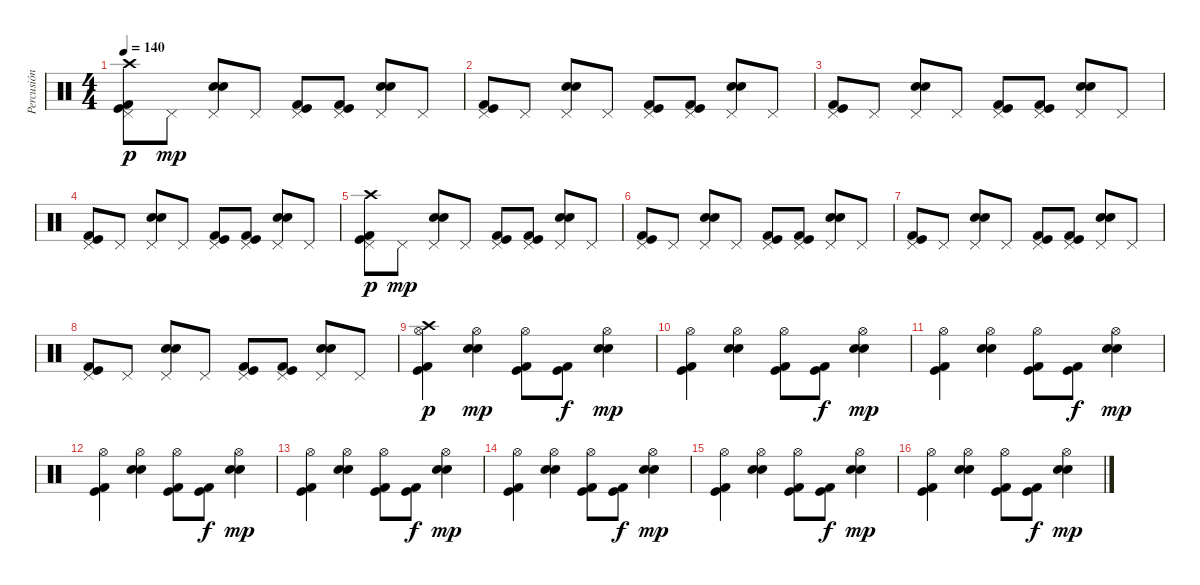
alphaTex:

\track ("Percusión" "Percusión") {instrument percussion}
\staff {score}
\articulation defaults
\ts (4 4)
\tempo 140
\clef neutral
\ks c
("Kick (hit)" "Kick (hit) 2" "Pedal Hi-Hat (hit)" "Crash high (hit)").8{dy p} "Pedal Hi-Hat (hit)".8{dy mp} ("Electric Snare (hit)" "Snare (hit) 2" "Pedal Hi-Hat (hit)").8 "Pedal Hi-Hat (hit)".8 ("Kick (hit)" "Kick (hit) 2" "Pedal Hi-Hat (hit)").8 ("Kick (hit)" "Kick (hit) 2" "Pedal Hi-Hat (hit)").8 ("Snare (hit) 2" "Electric Snare (hit)" "Pedal Hi-Hat (hit)").8 "Pedal Hi-Hat (hit)".8 |
("Kick (hit)" "Kick (hit) 2" "Pedal Hi-Hat (hit)").8 "Pedal Hi-Hat (hit)".8 ("Electric Snare (hit)" "Snare (hit) 2" "Pedal Hi-Hat (hit)").8 "Pedal Hi-Hat (hit)".8 ("Kick (hit)" "Kick (hit) 2" "Pedal Hi-Hat (hit)").8 ("Kick (hit)" "Kick (hit) 2" "Pedal Hi-Hat (hit)").8 ("Snare (hit) 2" "Electric Snare (hit)" "Pedal Hi-Hat (hit)").8 "Pedal Hi-Hat (hit)".8 |
("Kick (hit)" "Kick (hit) 2" "Pedal Hi-Hat (hit)").8 "Pedal Hi-Hat (hit)".8 ("Electric Snare (hit)" "Snare (hit) 2" "Pedal Hi-Hat (hit)").8 "Pedal Hi-Hat (hit)".8 ("Kick (hit)" "Kick (hit) 2" "Pedal Hi-Hat (hit)").8 ("Kick (hit)" "Kick (hit) 2" "Pedal Hi-Hat (hit)").8 ("Snare (hit) 2" "Electric Snare (hit)" "Pedal Hi-Hat (hit)").8 "Pedal Hi-Hat (hit)".8 |
("Kick (hit)" "Kick (hit) 2" "Pedal Hi-Hat (hit)").8 "Pedal Hi-Hat (hit)".8 ("Electric Snare (hit)" "Snare (hit) 2" "Pedal Hi-Hat (hit)").8 "Pedal Hi-Hat (hit)".8 ("Kick (hit)" "Kick (hit) 2" "Pedal Hi-Hat (hit)").8 ("Kick (hit)" "Kick (hit) 2" "Pedal Hi-Hat (hit)").8 ("Snare (hit) 2" "Electric Snare (hit)" "Pedal Hi-Hat (hit)").8 "Pedal Hi-Hat (hit)".8 |
("Kick (hit)" "Kick (hit) 2" "Pedal Hi-Hat (hit)" "Crash high (hit)").8{dy p} "Pedal Hi-Hat (hit)".8{dy mp} ("Electric Snare (hit)" "Snare (hit) 2" "Pedal Hi-Hat (hit)").8 "Pedal Hi-Hat (hit)".8 ("Kick (hit)" "Kick (hit) 2" "Pedal Hi-Hat (hit)").8 ("Kick (hit)" "Kick (hit) 2" "Pedal Hi-Hat (hit)").8 ("Snare (hit) 2" "Electric Snare (hit)" "Pedal Hi-Hat (hit)").8 "Pedal Hi-Hat (hit)".8 |
("Kick (hit)" "Kick (hit) 2" "Pedal Hi-Hat (hit)").8 "Pedal Hi-Hat (hit)".8 ("Electric Snare (hit)" "Snare (hit) 2" "Pedal Hi-Hat (hit)").8 "Pedal Hi-Hat (hit)".8 ("Kick (hit)" "Kick (hit) 2" "Pedal Hi-Hat (hit)").8 ("Kick (hit)" "Kick (hit) 2" "Pedal Hi-Hat (hit)").8 ("Snare (hit) 2" "Electric Snare (hit)" "Pedal Hi-Hat (hit)").8 "Pedal Hi-Hat (hit)".8 |
("Kick (hit)" "Kick (hit) 2" "Pedal Hi-Hat (hit)").8 "Pedal Hi-Hat (hit)".8 ("Electric Snare (hit)" "Snare (hit) 2" "Pedal Hi-Hat (hit)").8 "Pedal Hi-Hat (hit)".8 ("Kick (hit)" "Kick (hit) 2" "Pedal Hi-Hat (hit)").8 ("Kick (hit)" "Kick (hit) 2" "Pedal Hi-Hat (hit)").8 ("Snare (hit) 2" "Electric Snare (hit)" "Pedal Hi-Hat (hit)").8 "Pedal Hi-Hat (hit)".8 |
("Kick (hit)" "Kick (hit) 2" "Pedal Hi-Hat (hit)").8 "Pedal Hi-Hat (hit)".8 ("Electric Snare (hit)" "Snare (hit) 2" "Pedal Hi-Hat (hit)").8 "Pedal Hi-Hat (hit)".8 ("Kick (hit)" "Kick (hit) 2" "Pedal Hi-Hat (hit)").8 ("Kick (hit)" "Kick (hit) 2" "Pedal Hi-Hat (hit)").8 ("Snare (hit) 2" "Electric Snare (hit)" "Pedal Hi-Hat (hit)").8 "Pedal Hi-Hat (hit)".8 |
("Kick (hit)" "Kick (hit) 2" "Hi-Hat (open)" "Crash high (hit)").4{dy p} ("Electric Snare (hit)" "Snare (hit) 2" "Hi-Hat (open)").4{dy mp} ("Kick (hit)" "Kick (hit) 2" "Hi-Hat (open)").8 ("Kick (hit)" "Kick (hit) 2").8{dy f} ("Snare (hit) 2" "Electric Snare (hit)" "Hi-Hat (open)").4{dy mp} |
("Kick (hit)" "Kick (hit) 2" "Hi-Hat (open)").4 ("Electric Snare (hit)" "Snare (hit) 2" "Hi-Hat (open)").4 ("Kick (hit)" "Kick (hit) 2" "Hi-Hat (open)").8 ("Kick (hit)" "Kick (hit) 2").8{dy f} ("Snare (hit) 2" "Electric Snare (hit)" "Hi-Hat (open)").4{dy mp} |
("Kick (hit)" "Kick (hit) 2" "Hi-Hat (open)").4 ("Electric Snare (hit)" "Snare (hit) 2" "Hi-Hat (open)").4 ("Kick (hit)" "Kick (hit) 2" "Hi-Hat (open)").8 ("Kick (hit)" "Kick (hit) 2").8{dy f} ("Snare (hit) 2" "Electric Snare (hit)" "Hi-Hat (open)").4{dy mp} |
("Kick (hit)" "Kick (hit) 2" "Hi-Hat (open)").4 ("Electric Snare (hit)" "Snare (hit) 2" "Hi-Hat (open)").4 ("Kick (hit)" "Kick (hit) 2" "Hi-Hat (open)").8 ("Kick (hit)" "Kick (hit) 2").8{dy f} ("Snare (hit) 2" "Electric Snare (hit)" "Hi-Hat (open)").4{dy mp} |
("Kick (hit)" "Kick (hit) 2" "Hi-Hat (open)").4 ("Electric Snare (hit)" "Snare (hit) 2" "Hi-Hat (open)").4 ("Kick (hit)" "Kick (hit) 2" "Hi-Hat (open)").8 ("Kick (hit)" "Kick (hit) 2").8{dy f} ("Snare (hit) 2" "Electric Snare (hit)" "Hi-Hat (open)").4{dy mp} |
("Kick (hit)" "Kick (hit) 2" "Hi-Hat (open)").4 ("Electric Snare (hit)" "Snare (hit) 2" "Hi-Hat (open)").4 ("Kick (hit)" "Kick (hit) 2" "Hi-Hat (open)").8 ("Kick (hit)" "Kick (hit) 2").8{dy f} ("Snare (hit) 2" "Electric Snare (hit)" "Hi-Hat (open)").4{dy mp} |
("Kick (hit)" "Kick (hit) 2" "Hi-Hat (open)").4 ("Electric Snare (hit)" "Snare (hit) 2" "Hi-Hat (open)").4 ("Kick (hit)" "Kick (hit) 2" "Hi-Hat (open)").8 ("Kick (hit)" "Kick (hit) 2").8{dy f} ("Snare (hit) 2" "Electric Snare (hit)" "Hi-Hat (open)").4{dy mp} |
("Kick (hit)" "Kick (hit) 2" "Hi-Hat (open)").4 ("Electric Snare (hit)" "Snare (hit) 2" "Hi-Hat (open)").4 ("Kick (hit)" "Kick (hit) 2" "Hi-Hat (open)").8 ("Kick (hit)" "Kick (hit) 2").8{dy f} ("Snare (hit) 2" "Electric Snare (hit)" "Hi-Hat (open)").4{dy mp}
